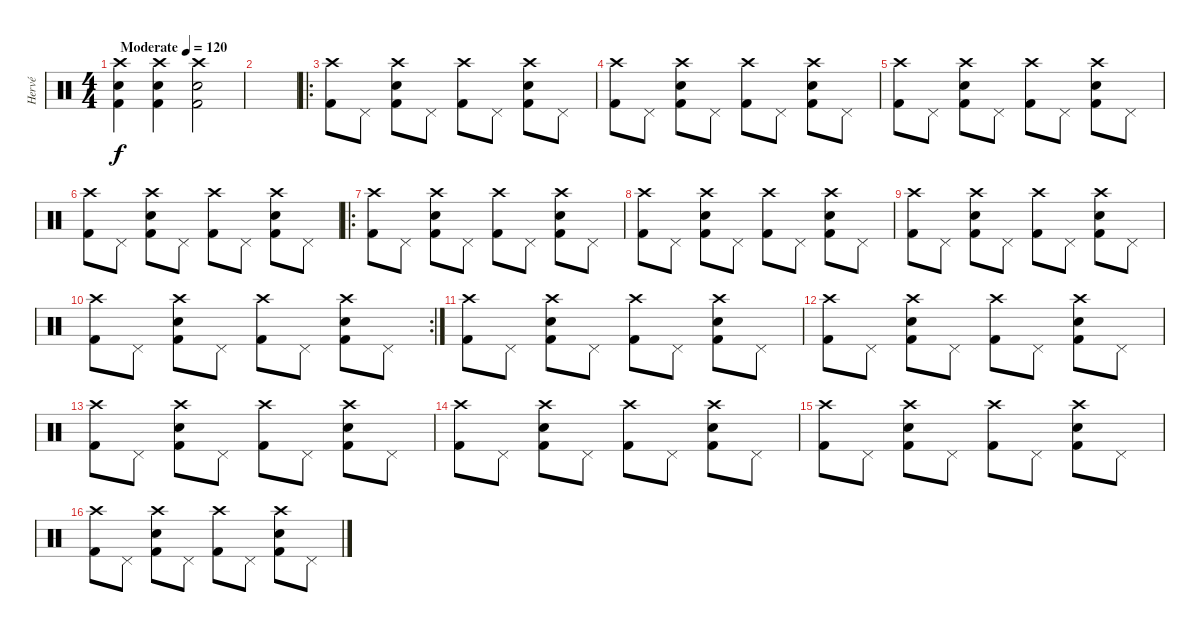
\track ("Hervé" "Hervé") {instrument percussion}
\staff {score}
\articulation defaults
\ts (4 4)
\tempo (120 "Moderate")
\clef neutral
\ks c
("Crash high (hit)" "Electric Snare (hit)" "Kick (hit) 2").4{dy f} ("Crash high (hit)" "Electric Snare (hit)" "Kick (hit) 2").4 ("Crash high (hit)" "Electric Snare (hit)" "Kick (hit) 2").2 |
|
\ro
("Crash high (hit)" "Kick (hit) 2").8 "Pedal Hi-Hat (hit)".8 ("Crash high (hit)" "Electric Snare (hit)" "Kick (hit) 2").8 "Pedal Hi-Hat (hit)".8 ("Crash high (hit)" "Kick (hit) 2").8 "Pedal Hi-Hat (hit)".8 ("Crash high (hit)" "Electric Snare (hit)" "Kick (hit) 2").8 "Pedal Hi-Hat (hit)".8 |
("Crash high (hit)" "Kick (hit) 2").8 "Pedal Hi-Hat (hit)".8 ("Crash high (hit)" "Electric Snare (hit)" "Kick (hit) 2").8 "Pedal Hi-Hat (hit)".8 ("Crash high (hit)" "Kick (hit) 2").8 "Pedal Hi-Hat (hit)".8 ("Crash high (hit)" "Electric Snare (hit)" "Kick (hit) 2").8 "Pedal Hi-Hat (hit)".8 |
("Crash high (hit)" "Kick (hit) 2").8 "Pedal Hi-Hat (hit)".8 ("Crash high (hit)" "Electric Snare (hit)" "Kick (hit) 2").8 "Pedal Hi-Hat (hit)".8 ("Crash high (hit)" "Kick (hit) 2").8 "Pedal Hi-Hat (hit)".8 ("Crash high (hit)" "Electric Snare (hit)" "Kick (hit) 2").8 "Pedal Hi-Hat (hit)".8 |
("Crash high (hit)" "Kick (hit) 2").8 "Pedal Hi-Hat (hit)".8 ("Crash high (hit)" "Electric Snare (hit)" "Kick (hit) 2").8 "Pedal Hi-Hat (hit)".8 ("Crash high (hit)" "Kick (hit) 2").8 "Pedal Hi-Hat (hit)".8 ("Crash high (hit)" "Electric Snare (hit)" "Kick (hit) 2").8 "Pedal Hi-Hat (hit)".8 |
\ro
("Crash high (hit)" "Kick (hit) 2").8 "Pedal Hi-Hat (hit)".8 ("Crash high (hit)" "Electric Snare (hit)" "Kick (hit) 2").8 "Pedal Hi-Hat (hit)".8 ("Crash high (hit)" "Kick (hit) 2").8 "Pedal Hi-Hat (hit)".8 ("Crash high (hit)" "Electric Snare (hit)" "Kick (hit) 2").8 "Pedal Hi-Hat (hit)".8 |
("Crash high (hit)" "Kick (hit) 2").8 "Pedal Hi-Hat (hit)".8 ("Crash high (hit)" "Electric Snare (hit)" "Kick (hit) 2").8 "Pedal Hi-Hat (hit)".8 ("Crash high (hit)" "Kick (hit) 2").8 "Pedal Hi-Hat (hit)".8 ("Crash high (hit)" "Electric Snare (hit)" "Kick (hit) 2").8 "Pedal Hi-Hat (hit)".8 |
("Crash high (hit)" "Kick (hit) 2").8 "Pedal Hi-Hat (hit)".8 ("Crash high (hit)" "Electric Snare (hit)" "Kick (hit) 2").8 "Pedal Hi-Hat (hit)".8 ("Crash high (hit)" "Kick (hit) 2").8 "Pedal Hi-Hat (hit)".8 ("Crash high (hit)" "Electric Snare (hit)" "Kick (hit) 2").8 "Pedal Hi-Hat (hit)".8 |
\rc 2
("Crash high (hit)" "Kick (hit) 2").8 "Pedal Hi-Hat (hit)".8 ("Crash high (hit)" "Electric Snare (hit)" "Kick (hit) 2").8 "Pedal Hi-Hat (hit)".8 ("Crash high (hit)" "Kick (hit) 2").8 "Pedal Hi-Hat (hit)".8 ("Crash high (hit)" "Electric Snare (hit)" "Kick (hit) 2").8 "Pedal Hi-Hat (hit)".8 |
("Crash high (hit)" "Kick (hit) 2").8 "Pedal Hi-Hat (hit)".8 ("Crash high (hit)" "Electric Snare (hit)" "Kick (hit) 2").8 "Pedal Hi-Hat (hit)".8 ("Crash high (hit)" "Kick (hit) 2").8 "Pedal Hi-Hat (hit)".8 ("Crash high (hit)" "Electric Snare (hit)" "Kick (hit) 2").8 "Pedal Hi-Hat (hit)".8 |
("Crash high (hit)" "Kick (hit) 2").8 "Pedal Hi-Hat (hit)".8 ("Crash high (hit)" "Electric Snare (hit)" "Kick (hit) 2").8 "Pedal Hi-Hat (hit)".8 ("Crash high (hit)" "Kick (hit) 2").8 "Pedal Hi-Hat (hit)".8 ("Crash high (hit)" "Electric Snare (hit)" "Kick (hit) 2").8 "Pedal Hi-Hat (hit)".8 |
("Crash high (hit)" "Kick (hit) 2").8 "Pedal Hi-Hat (hit)".8 ("Crash high (hit)" "Electric Snare (hit)" "Kick (hit) 2").8 "Pedal Hi-Hat (hit)".8 ("Crash high (hit)" "Kick (hit) 2").8 "Pedal Hi-Hat (hit)".8 ("Crash high (hit)" "Electric Snare (hit)" "Kick (hit) 2").8 "Pedal Hi-Hat (hit)".8 |
("Crash high (hit)" "Kick (hit) 2").8 "Pedal Hi-Hat (hit)".8 ("Crash high (hit)" "Electric Snare (hit)" "Kick (hit) 2").8 "Pedal Hi-Hat (hit)".8 ("Crash high (hit)" "Kick (hit) 2").8 "Pedal Hi-Hat (hit)".8 ("Crash high (hit)" "Electric Snare (hit)" "Kick (hit) 2").8 "Pedal Hi-Hat (hit)".8 |
("Crash high (hit)" "Kick (hit) 2").8 "Pedal Hi-Hat (hit)".8 ("Crash high (hit)" "Electric Snare (hit)" "Kick (hit) 2").8 "Pedal Hi-Hat (hit)".8 ("Crash high (hit)" "Kick (hit) 2").8 "Pedal Hi-Hat (hit)".8 ("Crash high (hit)" "Electric Snare (hit)" "Kick (hit) 2").8 "Pedal Hi-Hat (hit)".8 |
("Crash high (hit)" "Kick (hit) 2").8 "Pedal Hi-Hat (hit)".8 ("Crash high (hit)" "Electric Snare (hit)" "Kick (hit) 2").8 "Pedal Hi-Hat (hit)".8 ("Crash high (hit)" "Kick (hit) 2").8 "Pedal Hi-Hat (hit)".8 ("Crash high (hit)" "Electric Snare (hit)" "Kick (hit) 2").8 "Pedal Hi-Hat (hit)".8
